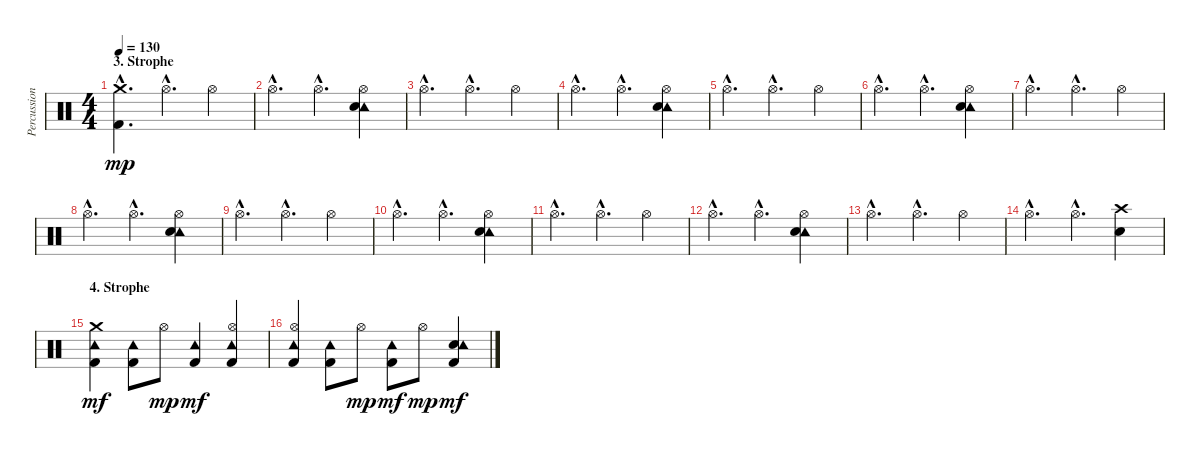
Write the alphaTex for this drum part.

\track ("Percussion (Bela)" "Percussion") {instrument percussion}
\staff {score}
\articulation defaults
\ts (4 4)
\section ("" "3. Strophe")
\tempo 130
\clef neutral
\ks c
("Crash medium (hit)"{hac} "Kick (hit) 2"{hac}).4{d dy mp} "Hi-Hat (open)"{hac}.4{d} "Hi-Hat (open)".4 |
"Hi-Hat (open)"{hac}.4{d} "Hi-Hat (open)"{hac}.4{d} ("Tambourine (hit)" "Hi-Hat (open)" "Electric Snare (hit)").4 |
"Hi-Hat (open)"{hac}.4{d} "Hi-Hat (open)"{hac}.4{d} "Hi-Hat (open)".4 |
"Hi-Hat (open)"{hac}.4{d} "Hi-Hat (open)"{hac}.4{d} ("Tambourine (hit)" "Hi-Hat (open)" "Electric Snare (hit)").4 |
"Hi-Hat (open)"{hac}.4{d} "Hi-Hat (open)"{hac}.4{d} "Hi-Hat (open)".4 |
"Hi-Hat (open)"{hac}.4{d} "Hi-Hat (open)"{hac}.4{d} ("Tambourine (hit)" "Hi-Hat (open)" "Electric Snare (hit)").4 |
"Hi-Hat (open)"{hac}.4{d} "Hi-Hat (open)"{hac}.4{d} "Hi-Hat (open)".4 |
"Hi-Hat (open)"{hac}.4{d} "Hi-Hat (open)"{hac}.4{d} ("Tambourine (hit)" "Hi-Hat (open)" "Electric Snare (hit)").4 |
"Hi-Hat (open)"{hac}.4{d} "Hi-Hat (open)"{hac}.4{d} "Hi-Hat (open)".4 |
"Hi-Hat (open)"{hac}.4{d} "Hi-Hat (open)"{hac}.4{d} ("Tambourine (hit)" "Hi-Hat (open)" "Electric Snare (hit)").4 |
"Hi-Hat (open)"{hac}.4{d} "Hi-Hat (open)"{hac}.4{d} "Hi-Hat (open)".4 |
"Hi-Hat (open)"{hac}.4{d} "Hi-Hat (open)"{hac}.4{d} ("Tambourine (hit)" "Hi-Hat (open)" "Electric Snare (hit)").4 |
"Hi-Hat (open)"{hac}.4{d} "Hi-Hat (open)"{hac}.4{d} "Hi-Hat (open)".4 |
"Hi-Hat (open)"{hac}.4{d} "Hi-Hat (open)"{hac}.4{d} ("Crash high (hit)" "Electric Snare (hit)").4 |
\section ("" "4. Strophe")
("Crash medium (hit)" "Tambourine (hit)" "Kick (hit) 2").4{dy mf} ("Tambourine (hit)" "Kick (hit) 2").8 "Hi-Hat (open)".8{dy mp} ("Tambourine (hit)" "Kick (hit) 2").4{dy mf} ("Hi-Hat (open)" "Tambourine (hit)" "Kick (hit) 2").4 |
("Hi-Hat (open)" "Tambourine (hit)" "Kick (hit) 2").4 ("Tambourine (hit)" "Kick (hit) 2").8 "Hi-Hat (open)".8{dy mp} ("Tambourine (hit)" "Kick (hit) 2").8{dy mf} "Hi-Hat (open)".8{dy mp} ("Electric Snare (hit)" "Tambourine (hit)" "Kick (hit) 2").4{dy mf}
